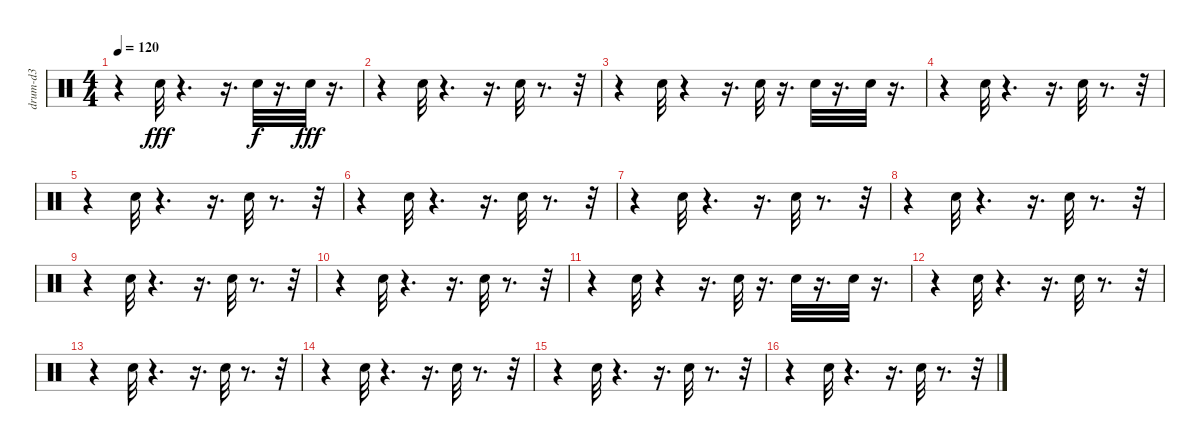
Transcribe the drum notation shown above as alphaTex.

\track ("drum-d3" "drum-d3") {instrument percussion}
\staff {score}
\articulation defaults
\ts (4 4)
\tempo 120
\clef neutral
\ks c
r.4{dy fff} "Snare (hit) 2".32 r.4{d} r.16{d} "Snare (hit) 2".32{dy f} r.16{d} "Snare (hit) 2".32{dy fff} r.16{d} |
r.4 "Snare (hit) 2".32 r.4{d} r.16{d} "Snare (hit) 2".32 r.8{d} r.32 |
r.4 "Snare (hit) 2".32 r.4 r.16{d} "Snare (hit) 2".32 r.16{d} "Snare (hit) 2".32 r.16{d} "Snare (hit) 2".32 r.16{d} |
r.4 "Snare (hit) 2".32 r.4{d} r.16{d} "Snare (hit) 2".32 r.8{d} r.32 |
r.4 "Snare (hit) 2".32 r.4{d} r.16{d} "Snare (hit) 2".32 r.8{d} r.32 |
r.4 "Snare (hit) 2".32 r.4{d} r.16{d} "Snare (hit) 2".32 r.8{d} r.32 |
r.4 "Snare (hit) 2".32 r.4{d} r.16{d} "Snare (hit) 2".32 r.8{d} r.32 |
r.4 "Snare (hit) 2".32 r.4{d} r.16{d} "Snare (hit) 2".32 r.8{d} r.32 |
r.4 "Snare (hit) 2".32 r.4{d} r.16{d} "Snare (hit) 2".32 r.8{d} r.32 |
r.4 "Snare (hit) 2".32 r.4{d} r.16{d} "Snare (hit) 2".32 r.8{d} r.32 |
r.4 "Snare (hit) 2".32 r.4 r.16{d} "Snare (hit) 2".32 r.16{d} "Snare (hit) 2".32 r.16{d} "Snare (hit) 2".32 r.16{d} |
r.4 "Snare (hit) 2".32 r.4{d} r.16{d} "Snare (hit) 2".32 r.8{d} r.32 |
r.4 "Snare (hit) 2".32 r.4{d} r.16{d} "Snare (hit) 2".32 r.8{d} r.32 |
r.4 "Snare (hit) 2".32 r.4{d} r.16{d} "Snare (hit) 2".32 r.8{d} r.32 |
r.4 "Snare (hit) 2".32 r.4{d} r.16{d} "Snare (hit) 2".32 r.8{d} r.32 |
r.4 "Snare (hit) 2".32 r.4{d} r.16{d} "Snare (hit) 2".32 r.8{d} r.32
